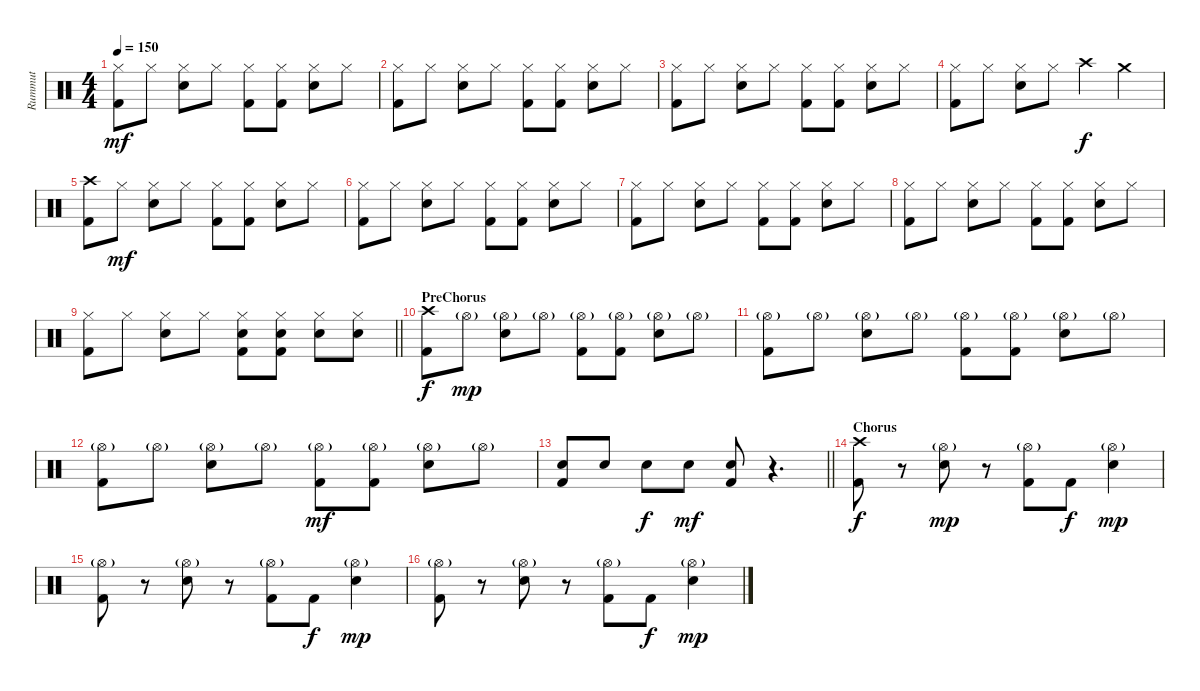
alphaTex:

\track ("Rummut" "Rummut") {instrument percussion bank 69}
\staff {score}
\articulation defaults
\ts (4 4)
\tempo 150
\clef neutral
\ks c
("Hi-Hat (closed)" "Kick (hit) 2").8{dy mf} "Hi-Hat (closed)".8 ("Hi-Hat (closed)" "Snare (hit) 2").8 "Hi-Hat (closed)".8 ("Hi-Hat (closed)" "Kick (hit) 2").8 ("Hi-Hat (closed)" "Kick (hit) 2").8 ("Hi-Hat (closed)" "Snare (hit) 2").8 "Hi-Hat (closed)".8 |
("Hi-Hat (closed)" "Kick (hit) 2").8 "Hi-Hat (closed)".8 ("Hi-Hat (closed)" "Snare (hit) 2").8 "Hi-Hat (closed)".8 ("Hi-Hat (closed)" "Kick (hit) 2").8 ("Hi-Hat (closed)" "Kick (hit) 2").8 ("Hi-Hat (closed)" "Snare (hit) 2").8 "Hi-Hat (closed)".8 |
("Hi-Hat (closed)" "Kick (hit) 2").8 "Hi-Hat (closed)".8 ("Hi-Hat (closed)" "Snare (hit) 2").8 "Hi-Hat (closed)".8 ("Hi-Hat (closed)" "Kick (hit) 2").8 ("Hi-Hat (closed)" "Kick (hit) 2").8 ("Hi-Hat (closed)" "Snare (hit) 2").8 "Hi-Hat (closed)".8 |
("Hi-Hat (closed)" "Kick (hit) 2").8 "Hi-Hat (closed)".8 ("Hi-Hat (closed)" "Snare (hit) 2").8 "Hi-Hat (closed)".8 "Crash high (hit)".4{dy f} "Crash medium (hit)".4 |
("Crash high (hit)" "Kick (hit) 2").8 "Hi-Hat (closed)".8{dy mf} ("Hi-Hat (closed)" "Snare (hit) 2").8 "Hi-Hat (closed)".8 ("Hi-Hat (closed)" "Kick (hit) 2").8 ("Hi-Hat (closed)" "Kick (hit) 2").8 ("Hi-Hat (closed)" "Snare (hit) 2").8 "Hi-Hat (closed)".8 |
("Hi-Hat (closed)" "Kick (hit) 2").8 "Hi-Hat (closed)".8 ("Hi-Hat (closed)" "Snare (hit) 2").8 "Hi-Hat (closed)".8 ("Hi-Hat (closed)" "Kick (hit) 2").8 ("Hi-Hat (closed)" "Kick (hit) 2").8 ("Hi-Hat (closed)" "Snare (hit) 2").8 "Hi-Hat (closed)".8 |
("Hi-Hat (closed)" "Kick (hit) 2").8 "Hi-Hat (closed)".8 ("Hi-Hat (closed)" "Snare (hit) 2").8 "Hi-Hat (closed)".8 ("Hi-Hat (closed)" "Kick (hit) 2").8 ("Hi-Hat (closed)" "Kick (hit) 2").8 ("Hi-Hat (closed)" "Snare (hit) 2").8 "Hi-Hat (closed)".8 |
("Hi-Hat (closed)" "Kick (hit) 2").8 "Hi-Hat (closed)".8 ("Hi-Hat (closed)" "Snare (hit) 2").8 "Hi-Hat (closed)".8 ("Hi-Hat (closed)" "Kick (hit) 2").8 ("Hi-Hat (closed)" "Kick (hit) 2").8 ("Hi-Hat (closed)" "Snare (hit) 2").8 "Hi-Hat (closed)".8 |
\barLineRight lightlight
("Hi-Hat (closed)" "Kick (hit) 2").8 "Hi-Hat (closed)".8 ("Hi-Hat (closed)" "Snare (hit) 2").8 "Hi-Hat (closed)".8 ("Hi-Hat (closed)" "Snare (hit) 2" "Kick (hit) 2").8 ("Hi-Hat (closed)" "Snare (hit) 2" "Kick (hit) 2").8 ("Hi-Hat (closed)" "Snare (hit) 2").8 ("Hi-Hat (closed)" "Snare (hit) 2").8 |
\section ("" "PreChorus")
("Crash high (hit)" "Kick (hit) 2").8{dy f} "Hi-Hat (open)"{g}.8{dy mp} ("Hi-Hat (open)"{g} "Snare (hit) 2").8 "Hi-Hat (open)"{g}.8 ("Hi-Hat (open)"{g} "Kick (hit) 2").8 ("Hi-Hat (open)"{g} "Kick (hit) 2").8 ("Hi-Hat (open)"{g} "Snare (hit) 2").8 "Hi-Hat (open)"{g}.8 |
("Hi-Hat (open)"{g} "Kick (hit) 2").8 "Hi-Hat (open)"{g}.8 ("Hi-Hat (open)"{g} "Snare (hit) 2").8 "Hi-Hat (open)"{g}.8 ("Hi-Hat (open)"{g} "Kick (hit) 2").8 ("Hi-Hat (open)"{g} "Kick (hit) 2").8 ("Hi-Hat (open)"{g} "Snare (hit) 2").8 "Hi-Hat (open)"{g}.8 |
("Hi-Hat (open)"{g} "Kick (hit) 2").8 "Hi-Hat (open)"{g}.8 ("Hi-Hat (open)"{g} "Snare (hit) 2").8 "Hi-Hat (open)"{g}.8 ("Hi-Hat (open)"{g} "Kick (hit) 2").8{dy mf} ("Hi-Hat (open)"{g} "Kick (hit) 2").8 ("Hi-Hat (open)"{g} "Snare (hit) 2").8 "Hi-Hat (open)"{g}.8 |
\barLineRight lightlight
("Snare (hit) 2" "Kick (hit) 2").8 "Snare (hit) 2".8 "Snare (hit) 2".8{dy f} "Snare (hit) 2".8{dy mf} ("Snare (hit) 2" "Kick (hit) 2").8 r.4{d} |
\section ("" "Chorus")
("Crash high (hit)" "Kick (hit) 2").8{dy f} r.8 ("Hi-Hat (open)"{g} "Snare (hit) 2").8{dy mp} r.8 ("Hi-Hat (open)"{g} "Kick (hit) 2").8 "Kick (hit) 2".8{dy f} ("Hi-Hat (open)"{g} "Snare (hit) 2").4{dy mp} |
("Hi-Hat (open)"{g} "Kick (hit) 2").8 r.8 ("Hi-Hat (open)"{g} "Snare (hit) 2").8 r.8 ("Hi-Hat (open)"{g} "Kick (hit) 2").8 "Kick (hit) 2".8{dy f} ("Hi-Hat (open)"{g} "Snare (hit) 2").4{dy mp} |
("Hi-Hat (open)"{g} "Kick (hit) 2").8 r.8 ("Hi-Hat (open)"{g} "Snare (hit) 2").8 r.8 ("Hi-Hat (open)"{g} "Kick (hit) 2").8 "Kick (hit) 2".8{dy f} ("Hi-Hat (open)"{g} "Snare (hit) 2").4{dy mp}
